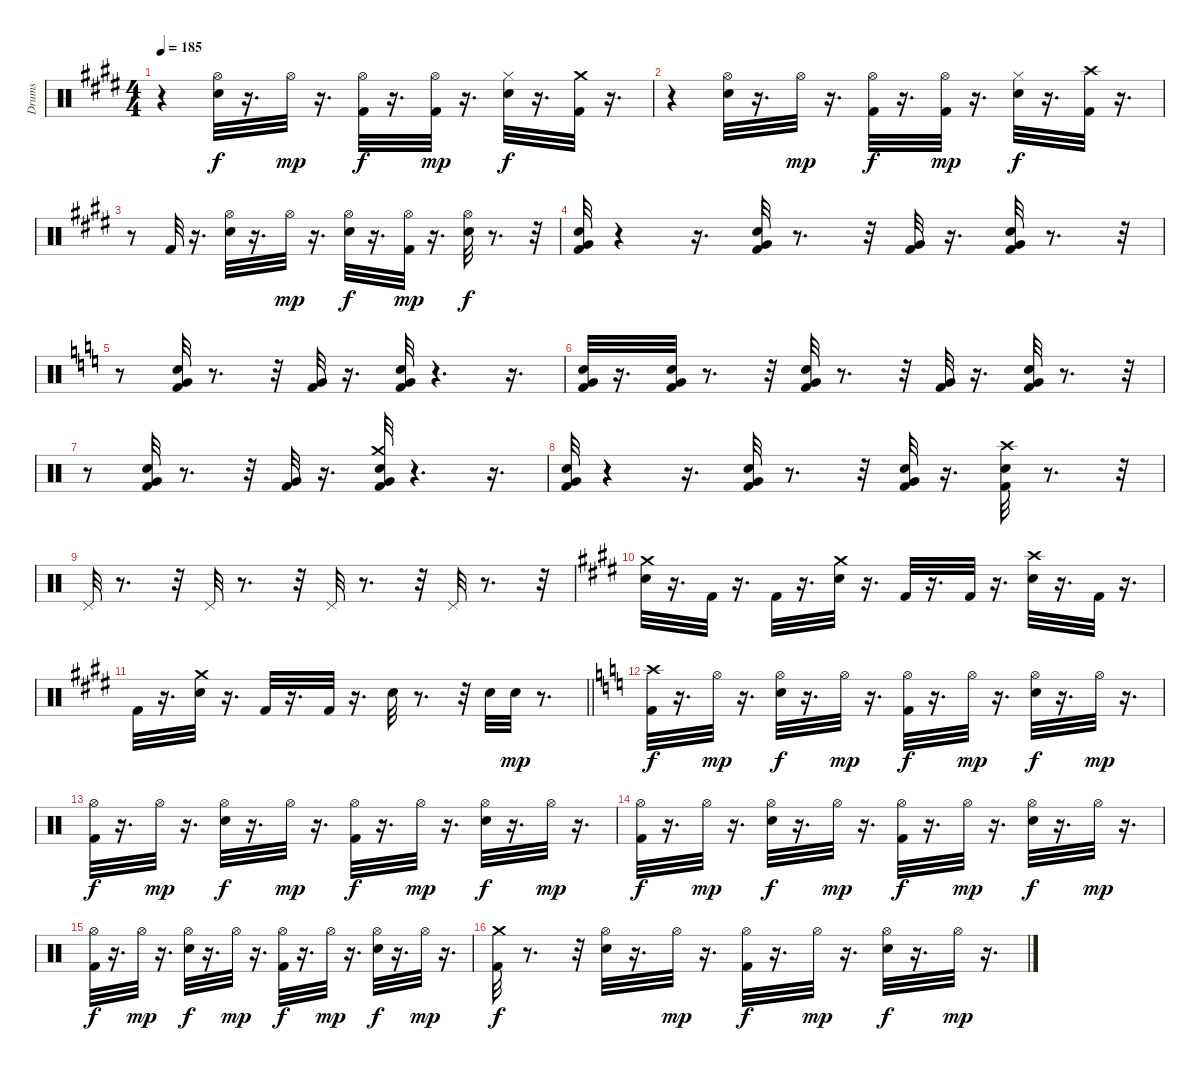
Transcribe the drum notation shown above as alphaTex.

\track ("Drums" "Drums") {instrument percussion}
\staff {score}
\articulation defaults
\ts (4 4)
\tempo 185
\clef neutral
\ks e
r.4{dy f} ("Hi-Hat (open)" "Electric Snare (hit)").32 r.16{d} "Hi-Hat (open)".32{dy mp} r.16{d} ("Hi-Hat (open)" "Kick (hit) 2").32{dy f} r.16{d} ("Hi-Hat (open)" "Kick (hit) 2").32{dy mp} r.16{d} ("Electric Snare (hit)" "Hi-Hat (closed)").32{dy f} r.16{d} ("Crash medium (hit)" "Kick (hit) 2").32 r.16{d} |
\ks c#minor
r.4 ("Electric Snare (hit)" "Hi-Hat (open)").32 r.16{d} "Hi-Hat (open)".32{dy mp} r.16{d} ("Hi-Hat (open)" "Kick (hit) 2").32{dy f} r.16{d} ("Kick (hit) 2" "Hi-Hat (open)").32{dy mp} r.16{d} ("Hi-Hat (closed)" "Electric Snare (hit)").32{dy f} r.16{d} ("Crash high (hit)" "Kick (hit) 2").32 r.16{d} |
r.8 "Kick (hit) 2".32 r.16{d} ("Hi-Hat (open)" "Electric Snare (hit)").32 r.16{d} "Hi-Hat (open)".32{dy mp} r.16{d} ("Electric Snare (hit)" "Hi-Hat (open)").32{dy f} r.16{d} ("Hi-Hat (open)" "Kick (hit) 2").32{dy mp} r.16{d} ("Hi-Hat (open)" "Electric Snare (hit)").32{dy f} r.8{d} r.32 |
\ks e
("Very Low Tom (hit)" "Electric Snare (hit)" "Kick (hit) 2").32 r.4 r.16{d} ("Very Low Tom (hit)" "Kick (hit) 2" "Electric Snare (hit)").32 r.8{d} r.32 ("Very Low Tom (hit)" "Kick (hit) 2").32 r.16{d} ("Very Low Tom (hit)" "Kick (hit) 2" "Electric Snare (hit)").32 r.8{d} r.32 |
\ks c
r.8 ("Kick (hit) 2" "Electric Snare (hit)" "Very Low Tom (hit)").32 r.8{d} r.32 ("Very Low Tom (hit)" "Kick (hit) 2").32 r.16{d} ("Very Low Tom (hit)" "Electric Snare (hit)" "Kick (hit) 2").32 r.4{d} r.16{d} |
("Very Low Tom (hit)" "Kick (hit) 2" "Electric Snare (hit)").32 r.16{d} ("Very Low Tom (hit)" "Kick (hit) 2" "Electric Snare (hit)").32 r.8{d} r.32 ("Very Low Tom (hit)" "Kick (hit) 2" "Electric Snare (hit)").32 r.8{d} r.32 ("Very Low Tom (hit)" "Kick (hit) 2").32 r.16{d} ("Very Low Tom (hit)" "Kick (hit) 2" "Electric Snare (hit)").32 r.8{d} r.32 |
r.8 ("Very Low Tom (hit)" "Kick (hit) 2" "Electric Snare (hit)").32 r.8{d} r.32 ("Very Low Tom (hit)" "Kick (hit) 2").32 r.16{d} ("Very Low Tom (hit)" "Crash medium (hit)" "Kick (hit) 2" "Electric Snare (hit)").32 r.4{d} r.16{d} |
("Very Low Tom (hit)" "Kick (hit) 2" "Electric Snare (hit)").32 r.4 r.16{d} ("Very Low Tom (hit)" "Kick (hit) 2" "Electric Snare (hit)").32 r.8{d} r.32 ("Very Low Tom (hit)" "Kick (hit) 2" "Electric Snare (hit)").32 r.16{d} ("Crash high (hit)" "Kick (hit) 2" "Electric Snare (hit)").32 r.8{d} r.32 |
"Pedal Hi-Hat (hit)".32 r.8{d} r.32 "Pedal Hi-Hat (hit)".32 r.8{d} r.32 "Pedal Hi-Hat (hit)".32 r.8{d} r.32 "Pedal Hi-Hat (hit)".32 r.8{d} r.32 |
\ks c#minor
("Crash medium (hit)" "Electric Snare (hit)").32 r.16{d} "Kick (hit) 2".32 r.16{d} "Kick (hit) 2".32 r.16{d} ("Crash medium (hit)" "Electric Snare (hit)").32 r.16{d} "Kick (hit) 2".32 r.16{d} "Kick (hit) 2".32 r.16{d} ("Crash high (hit)" "Electric Snare (hit)").32 r.16{d} "Kick (hit) 2".32 r.16{d} |
\barLineRight lightlight "Kick (hit) 2".32
r.16{d} ("Crash medium (hit)" "Electric Snare (hit)").32 r.16{d} "Kick (hit) 2".32 r.16{d} "Kick (hit) 2".32 r.16{d} "Electric Snare (hit)".32 r.8{d} r.32 "Electric Snare (hit)".32 "Snare (hit) 2".32{dy mp} r.8{d} |
\ks c
("Crash high (hit)" "Kick (hit) 2").32{dy f} r.16{d} "Hi-Hat (open)".32{dy mp} r.16{d} ("Hi-Hat (open)" "Electric Snare (hit)").32{dy f} r.16{d} "Hi-Hat (open)".32{dy mp} r.16{d} ("Hi-Hat (open)" "Kick (hit) 2").32{dy f} r.16{d} "Hi-Hat (open)".32{dy mp} r.16{d} ("Hi-Hat (open)" "Electric Snare (hit)").32{dy f} r.16{d} "Hi-Hat (open)".32{dy mp} r.16{d} |
("Hi-Hat (open)" "Kick (hit) 2").32{dy f} r.16{d} "Hi-Hat (open)".32{dy mp} r.16{d} ("Hi-Hat (open)" "Electric Snare (hit)").32{dy f} r.16{d} "Hi-Hat (open)".32{dy mp} r.16{d} ("Hi-Hat (open)" "Kick (hit) 2").32{dy f} r.16{d} "Hi-Hat (open)".32{dy mp} r.16{d} ("Hi-Hat (open)" "Electric Snare (hit)").32{dy f} r.16{d} "Hi-Hat (open)".32{dy mp} r.16{d} |
("Hi-Hat (open)" "Kick (hit) 2").32{dy f} r.16{d} "Hi-Hat (open)".32{dy mp} r.16{d} ("Hi-Hat (open)" "Electric Snare (hit)").32{dy f} r.16{d} "Hi-Hat (open)".32{dy mp} r.16{d} ("Hi-Hat (open)" "Kick (hit) 2").32{dy f} r.16{d} "Hi-Hat (open)".32{dy mp} r.16{d} ("Hi-Hat (open)" "Electric Snare (hit)").32{dy f} r.16{d} "Hi-Hat (open)".32{dy mp} r.16{d} |
("Hi-Hat (open)" "Kick (hit) 2").32{dy f} r.16{d} "Hi-Hat (open)".32{dy mp} r.16{d} ("Hi-Hat (open)" "Electric Snare (hit)").32{dy f} r.16{d} "Hi-Hat (open)".32{dy mp} r.16{d} ("Hi-Hat (open)" "Kick (hit) 2").32{dy f} r.16{d} "Hi-Hat (open)".32{dy mp} r.16{d} ("Hi-Hat (open)" "Electric Snare (hit)").32{dy f} r.16{d} "Hi-Hat (open)".32{dy mp} r.16{d} |
("Crash medium (hit)" "Kick (hit) 2").32{dy f} r.8{d} r.32 ("Hi-Hat (open)" "Electric Snare (hit)").32 r.16{d} "Hi-Hat (open)".32{dy mp} r.16{d} ("Hi-Hat (open)" "Kick (hit) 2").32{dy f} r.16{d} "Hi-Hat (open)".32{dy mp} r.16{d} ("Hi-Hat (open)" "Electric Snare (hit)").32{dy f} r.16{d} "Hi-Hat (open)".32{dy mp} r.16{d}
